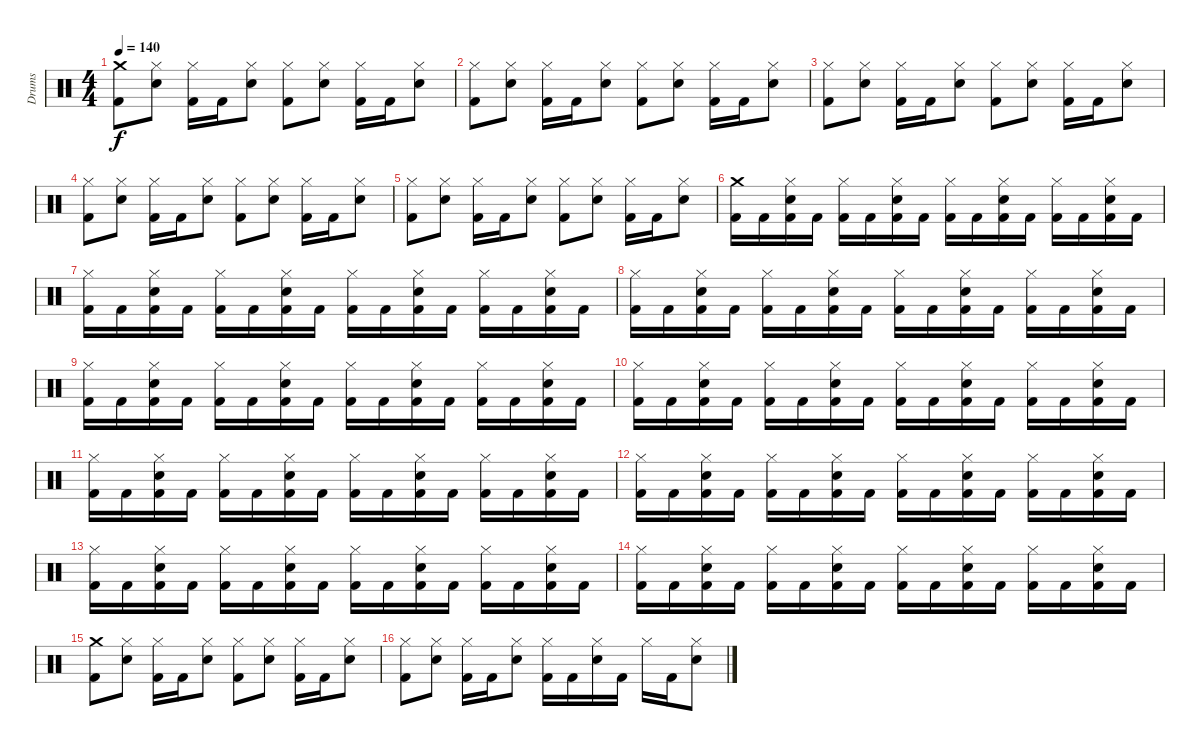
\track ("Drums" "Drums") {instrument percussion}
\staff {score}
\articulation defaults
\ts (4 4)
\tempo 140
\clef neutral
\ks c
("Crash medium (hit)" "Kick (hit) 2").8{dy f} ("Hi-Hat (closed)" "Electric Snare (hit)").8 ("Hi-Hat (closed)" "Kick (hit) 2").16 "Kick (hit) 2".16 ("Hi-Hat (closed)" "Electric Snare (hit)").8 ("Hi-Hat (closed)" "Kick (hit) 2").8 ("Hi-Hat (closed)" "Electric Snare (hit)").8 ("Hi-Hat (closed)" "Kick (hit) 2").16 "Kick (hit) 2".16 ("Hi-Hat (closed)" "Electric Snare (hit)").8 |
("Hi-Hat (closed)" "Kick (hit) 2").8 ("Hi-Hat (closed)" "Electric Snare (hit)").8 ("Hi-Hat (closed)" "Kick (hit) 2").16 "Kick (hit) 2".16 ("Hi-Hat (closed)" "Electric Snare (hit)").8 ("Hi-Hat (closed)" "Kick (hit) 2").8 ("Hi-Hat (closed)" "Electric Snare (hit)").8 ("Hi-Hat (closed)" "Kick (hit) 2").16 "Kick (hit) 2".16 ("Hi-Hat (closed)" "Electric Snare (hit)").8 |
("Hi-Hat (closed)" "Kick (hit) 2").8 ("Hi-Hat (closed)" "Electric Snare (hit)").8 ("Hi-Hat (closed)" "Kick (hit) 2").16 "Kick (hit) 2".16 ("Hi-Hat (closed)" "Electric Snare (hit)").8 ("Hi-Hat (closed)" "Kick (hit) 2").8 ("Hi-Hat (closed)" "Electric Snare (hit)").8 ("Hi-Hat (closed)" "Kick (hit) 2").16 "Kick (hit) 2".16 ("Hi-Hat (closed)" "Electric Snare (hit)").8 |
("Hi-Hat (closed)" "Kick (hit) 2").8 ("Hi-Hat (closed)" "Electric Snare (hit)").8 ("Hi-Hat (closed)" "Kick (hit) 2").16 "Kick (hit) 2".16 ("Hi-Hat (closed)" "Electric Snare (hit)").8 ("Hi-Hat (closed)" "Kick (hit) 2").8 ("Hi-Hat (closed)" "Electric Snare (hit)").8 ("Hi-Hat (closed)" "Kick (hit) 2").16 "Kick (hit) 2".16 ("Hi-Hat (closed)" "Electric Snare (hit)").8 |
("Hi-Hat (closed)" "Kick (hit) 2").8 ("Hi-Hat (closed)" "Electric Snare (hit)").8 ("Hi-Hat (closed)" "Kick (hit) 2").16 "Kick (hit) 2".16 ("Hi-Hat (closed)" "Electric Snare (hit)").8 ("Hi-Hat (closed)" "Kick (hit) 2").8 ("Hi-Hat (closed)" "Electric Snare (hit)").8 ("Hi-Hat (closed)" "Kick (hit) 2").16 "Kick (hit) 2".16 ("Hi-Hat (closed)" "Electric Snare (hit)").8 |
("Crash medium (hit)" "Kick (hit) 2").16 "Kick (hit) 2".16 ("Hi-Hat (closed)" "Electric Snare (hit)" "Kick (hit) 2").16 "Kick (hit) 2".16 ("Hi-Hat (closed)" "Kick (hit) 2").16 "Kick (hit) 2".16 ("Hi-Hat (closed)" "Electric Snare (hit)" "Kick (hit) 2").16 "Kick (hit) 2".16 ("Hi-Hat (closed)" "Kick (hit) 2").16 "Kick (hit) 2".16 ("Hi-Hat (closed)" "Electric Snare (hit)" "Kick (hit) 2").16 "Kick (hit) 2".16 ("Hi-Hat (closed)" "Kick (hit) 2").16 "Kick (hit) 2".16 ("Hi-Hat (closed)" "Electric Snare (hit)" "Kick (hit) 2").16 "Kick (hit) 2".16 |
("Hi-Hat (closed)" "Kick (hit) 2").16 "Kick (hit) 2".16 ("Hi-Hat (closed)" "Electric Snare (hit)" "Kick (hit) 2").16 "Kick (hit) 2".16 ("Hi-Hat (closed)" "Kick (hit) 2").16 "Kick (hit) 2".16 ("Hi-Hat (closed)" "Electric Snare (hit)" "Kick (hit) 2").16 "Kick (hit) 2".16 ("Hi-Hat (closed)" "Kick (hit) 2").16 "Kick (hit) 2".16 ("Hi-Hat (closed)" "Electric Snare (hit)" "Kick (hit) 2").16 "Kick (hit) 2".16 ("Hi-Hat (closed)" "Kick (hit) 2").16 "Kick (hit) 2".16 ("Hi-Hat (closed)" "Electric Snare (hit)" "Kick (hit) 2").16 "Kick (hit) 2".16 |
("Hi-Hat (closed)" "Kick (hit) 2").16 "Kick (hit) 2".16 ("Hi-Hat (closed)" "Electric Snare (hit)" "Kick (hit) 2").16 "Kick (hit) 2".16 ("Hi-Hat (closed)" "Kick (hit) 2").16 "Kick (hit) 2".16 ("Hi-Hat (closed)" "Electric Snare (hit)" "Kick (hit) 2").16 "Kick (hit) 2".16 ("Hi-Hat (closed)" "Kick (hit) 2").16 "Kick (hit) 2".16 ("Hi-Hat (closed)" "Electric Snare (hit)" "Kick (hit) 2").16 "Kick (hit) 2".16 ("Hi-Hat (closed)" "Kick (hit) 2").16 "Kick (hit) 2".16 ("Hi-Hat (closed)" "Electric Snare (hit)" "Kick (hit) 2").16 "Kick (hit) 2".16 |
("Hi-Hat (closed)" "Kick (hit) 2").16 "Kick (hit) 2".16 ("Hi-Hat (closed)" "Electric Snare (hit)" "Kick (hit) 2").16 "Kick (hit) 2".16 ("Hi-Hat (closed)" "Kick (hit) 2").16 "Kick (hit) 2".16 ("Hi-Hat (closed)" "Electric Snare (hit)" "Kick (hit) 2").16 "Kick (hit) 2".16 ("Hi-Hat (closed)" "Kick (hit) 2").16 "Kick (hit) 2".16 ("Hi-Hat (closed)" "Electric Snare (hit)" "Kick (hit) 2").16 "Kick (hit) 2".16 ("Hi-Hat (closed)" "Kick (hit) 2").16 "Kick (hit) 2".16 ("Hi-Hat (closed)" "Electric Snare (hit)" "Kick (hit) 2").16 "Kick (hit) 2".16 |
("Hi-Hat (closed)" "Kick (hit) 2").16 "Kick (hit) 2".16 ("Hi-Hat (closed)" "Electric Snare (hit)" "Kick (hit) 2").16 "Kick (hit) 2".16 ("Hi-Hat (closed)" "Kick (hit) 2").16 "Kick (hit) 2".16 ("Hi-Hat (closed)" "Electric Snare (hit)" "Kick (hit) 2").16 "Kick (hit) 2".16 ("Hi-Hat (closed)" "Kick (hit) 2").16 "Kick (hit) 2".16 ("Hi-Hat (closed)" "Electric Snare (hit)" "Kick (hit) 2").16 "Kick (hit) 2".16 ("Hi-Hat (closed)" "Kick (hit) 2").16 "Kick (hit) 2".16 ("Hi-Hat (closed)" "Electric Snare (hit)" "Kick (hit) 2").16 "Kick (hit) 2".16 |
("Hi-Hat (closed)" "Kick (hit) 2").16 "Kick (hit) 2".16 ("Hi-Hat (closed)" "Electric Snare (hit)" "Kick (hit) 2").16 "Kick (hit) 2".16 ("Hi-Hat (closed)" "Kick (hit) 2").16 "Kick (hit) 2".16 ("Hi-Hat (closed)" "Electric Snare (hit)" "Kick (hit) 2").16 "Kick (hit) 2".16 ("Hi-Hat (closed)" "Kick (hit) 2").16 "Kick (hit) 2".16 ("Hi-Hat (closed)" "Electric Snare (hit)" "Kick (hit) 2").16 "Kick (hit) 2".16 ("Hi-Hat (closed)" "Kick (hit) 2").16 "Kick (hit) 2".16 ("Hi-Hat (closed)" "Electric Snare (hit)" "Kick (hit) 2").16 "Kick (hit) 2".16 |
("Hi-Hat (closed)" "Kick (hit) 2").16 "Kick (hit) 2".16 ("Hi-Hat (closed)" "Electric Snare (hit)" "Kick (hit) 2").16 "Kick (hit) 2".16 ("Hi-Hat (closed)" "Kick (hit) 2").16 "Kick (hit) 2".16 ("Hi-Hat (closed)" "Electric Snare (hit)" "Kick (hit) 2").16 "Kick (hit) 2".16 ("Hi-Hat (closed)" "Kick (hit) 2").16 "Kick (hit) 2".16 ("Hi-Hat (closed)" "Electric Snare (hit)" "Kick (hit) 2").16 "Kick (hit) 2".16 ("Hi-Hat (closed)" "Kick (hit) 2").16 "Kick (hit) 2".16 ("Hi-Hat (closed)" "Electric Snare (hit)" "Kick (hit) 2").16 "Kick (hit) 2".16 |
("Hi-Hat (closed)" "Kick (hit) 2").16 "Kick (hit) 2".16 ("Hi-Hat (closed)" "Electric Snare (hit)" "Kick (hit) 2").16 "Kick (hit) 2".16 ("Hi-Hat (closed)" "Kick (hit) 2").16 "Kick (hit) 2".16 ("Hi-Hat (closed)" "Electric Snare (hit)" "Kick (hit) 2").16 "Kick (hit) 2".16 ("Hi-Hat (closed)" "Kick (hit) 2").16 "Kick (hit) 2".16 ("Hi-Hat (closed)" "Electric Snare (hit)" "Kick (hit) 2").16 "Kick (hit) 2".16 ("Hi-Hat (closed)" "Kick (hit) 2").16 "Kick (hit) 2".16 ("Hi-Hat (closed)" "Electric Snare (hit)" "Kick (hit) 2").16 "Kick (hit) 2".16 |
("Hi-Hat (closed)" "Kick (hit) 2").16 "Kick (hit) 2".16 ("Hi-Hat (closed)" "Electric Snare (hit)" "Kick (hit) 2").16 "Kick (hit) 2".16 ("Hi-Hat (closed)" "Kick (hit) 2").16 "Kick (hit) 2".16 ("Hi-Hat (closed)" "Electric Snare (hit)" "Kick (hit) 2").16 "Kick (hit) 2".16 ("Hi-Hat (closed)" "Kick (hit) 2").16 "Kick (hit) 2".16 ("Hi-Hat (closed)" "Electric Snare (hit)" "Kick (hit) 2").16 "Kick (hit) 2".16 ("Hi-Hat (closed)" "Kick (hit) 2").16 "Kick (hit) 2".16 ("Hi-Hat (closed)" "Electric Snare (hit)" "Kick (hit) 2").16 "Kick (hit) 2".16 |
("Crash medium (hit)" "Kick (hit) 2").8 ("Hi-Hat (closed)" "Electric Snare (hit)").8 ("Hi-Hat (closed)" "Kick (hit) 2").16 "Kick (hit) 2".16 ("Hi-Hat (closed)" "Electric Snare (hit)").8 ("Hi-Hat (closed)" "Kick (hit) 2").8 ("Hi-Hat (closed)" "Electric Snare (hit)").8 ("Hi-Hat (closed)" "Kick (hit) 2").16 "Kick (hit) 2".16 ("Hi-Hat (closed)" "Electric Snare (hit)").8 |
("Hi-Hat (closed)" "Kick (hit) 2").8 ("Hi-Hat (closed)" "Electric Snare (hit)").8 ("Hi-Hat (closed)" "Kick (hit) 2").16 "Kick (hit) 2".16 ("Hi-Hat (closed)" "Electric Snare (hit)").8 ("Hi-Hat (closed)" "Kick (hit) 2").16 "Kick (hit) 2".16 ("Hi-Hat (closed)" "Electric Snare (hit)").16 "Kick (hit) 2".16 "Hi-Hat (closed)".16 "Kick (hit) 2".16 ("Hi-Hat (closed)" "Electric Snare (hit)").8
